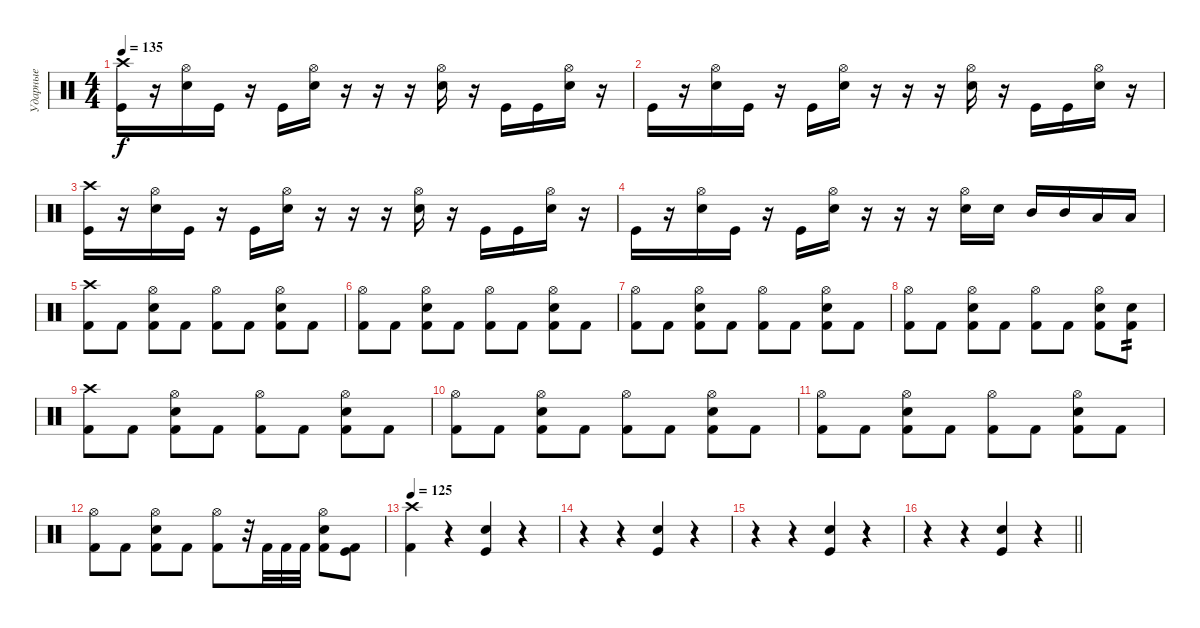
\track ("Ударные" "Ударные") {instrument percussion}
\staff {score}
\articulation defaults
\ts (4 4)
\tempo 135
\clef neutral
\ks c
("Crash high (hit)" "Kick (hit)").16{dy f} r.16 ("Hi-Hat (open)" "Electric Snare (hit)").16 "Kick (hit)".16 r.16 "Kick (hit)".16 ("Hi-Hat (open)" "Electric Snare (hit)").16 r.16 r.16 r.16 ("Hi-Hat (open)" "Electric Snare (hit)").16 r.16 "Kick (hit)".16 "Kick (hit)".16 ("Hi-Hat (open)" "Electric Snare (hit)").16 r.16 |
"Kick (hit)".16 r.16 ("Hi-Hat (open)" "Electric Snare (hit)").16 "Kick (hit)".16 r.16 "Kick (hit)".16 ("Hi-Hat (open)" "Electric Snare (hit)").16 r.16 r.16 r.16 ("Hi-Hat (open)" "Electric Snare (hit)").16 r.16 "Kick (hit)".16 "Kick (hit)".16 ("Hi-Hat (open)" "Electric Snare (hit)").16 r.16 |
("Crash high (hit)" "Kick (hit)").16 r.16 ("Hi-Hat (open)" "Electric Snare (hit)").16 "Kick (hit)".16 r.16 "Kick (hit)".16 ("Hi-Hat (open)" "Electric Snare (hit)").16 r.16 r.16 r.16 ("Hi-Hat (open)" "Electric Snare (hit)").16 r.16 "Kick (hit)".16 "Kick (hit)".16 ("Hi-Hat (open)" "Electric Snare (hit)").16 r.16 |
"Kick (hit)".16 r.16 ("Hi-Hat (open)" "Electric Snare (hit)").16 "Kick (hit)".16 r.16 "Kick (hit)".16 ("Hi-Hat (open)" "Electric Snare (hit)").16 r.16 r.16 r.16 ("Hi-Hat (open)" "Electric Snare (hit)").16 "Electric Snare (hit)".16 "Mid Tom (hit)".16 "Mid Tom (hit)".16 "Low Tom (hit)".16 "Low Tom (hit)".16 |
("Crash high (hit)" "Kick (hit) 2").8 "Kick (hit) 2".8 ("Hi-Hat (open)" "Electric Snare (hit)" "Kick (hit) 2").8 "Kick (hit) 2".8 ("Hi-Hat (open)" "Kick (hit) 2").8 "Kick (hit) 2".8 ("Hi-Hat (open)" "Electric Snare (hit)" "Kick (hit) 2").8 "Kick (hit) 2".8 |
("Hi-Hat (open)" "Kick (hit) 2").8 "Kick (hit) 2".8 ("Hi-Hat (open)" "Electric Snare (hit)" "Kick (hit) 2").8 "Kick (hit) 2".8 ("Hi-Hat (open)" "Kick (hit) 2").8 "Kick (hit) 2".8 ("Hi-Hat (open)" "Electric Snare (hit)" "Kick (hit) 2").8 "Kick (hit) 2".8 |
("Hi-Hat (open)" "Kick (hit) 2").8 "Kick (hit) 2".8 ("Hi-Hat (open)" "Electric Snare (hit)" "Kick (hit) 2").8 "Kick (hit) 2".8 ("Hi-Hat (open)" "Kick (hit) 2").8 "Kick (hit) 2".8 ("Hi-Hat (open)" "Electric Snare (hit)" "Kick (hit) 2").8 "Kick (hit) 2".8 |
("Hi-Hat (open)" "Kick (hit) 2").8 "Kick (hit) 2".8 ("Hi-Hat (open)" "Electric Snare (hit)" "Kick (hit) 2").8 "Kick (hit) 2".8 ("Hi-Hat (open)" "Kick (hit) 2").8 "Kick (hit) 2".8 ("Hi-Hat (open)" "Electric Snare (hit)" "Kick (hit) 2").8 ("Electric Snare (hit)" "Kick (hit) 2").8{tp 2} |
("Crash high (hit)" "Kick (hit) 2").8 "Kick (hit) 2".8 ("Hi-Hat (open)" "Electric Snare (hit)" "Kick (hit) 2").8 "Kick (hit) 2".8 ("Hi-Hat (open)" "Kick (hit) 2").8 "Kick (hit) 2".8 ("Hi-Hat (open)" "Electric Snare (hit)" "Kick (hit) 2").8 "Kick (hit) 2".8 |
("Hi-Hat (open)" "Kick (hit) 2").8 "Kick (hit) 2".8 ("Hi-Hat (open)" "Electric Snare (hit)" "Kick (hit) 2").8 "Kick (hit) 2".8 ("Hi-Hat (open)" "Kick (hit) 2").8 "Kick (hit) 2".8 ("Hi-Hat (open)" "Electric Snare (hit)" "Kick (hit) 2").8 "Kick (hit) 2".8 |
("Hi-Hat (open)" "Kick (hit) 2").8 "Kick (hit) 2".8 ("Hi-Hat (open)" "Electric Snare (hit)" "Kick (hit) 2").8 "Kick (hit) 2".8 ("Hi-Hat (open)" "Kick (hit) 2").8 "Kick (hit) 2".8 ("Hi-Hat (open)" "Electric Snare (hit)" "Kick (hit) 2").8 "Kick (hit) 2".8 |
("Hi-Hat (open)" "Kick (hit) 2").8 "Kick (hit) 2".8 ("Hi-Hat (open)" "Electric Snare (hit)" "Kick (hit) 2").8 "Kick (hit) 2".8 ("Hi-Hat (open)" "Kick (hit) 2").8 r.32 "Kick (hit) 2".32 "Kick (hit) 2".32 "Kick (hit) 2".32 ("Hi-Hat (open)" "Electric Snare (hit)" "Kick (hit) 2").8 ("Kick (hit)" "Kick (hit) 2").8 |
\tempo 125
("Crash high (hit)" "Kick (hit) 2").4 r.4 ("Electric Snare (hit)" "Kick (hit)").4 r.4 |
r.4 r.4 ("Electric Snare (hit)" "Kick (hit)").4 r.4 |
r.4 r.4 ("Electric Snare (hit)" "Kick (hit)").4 r.4 |
\barLineRight lightlight
r.4 r.4 ("Electric Snare (hit)" "Kick (hit)").4 r.4
